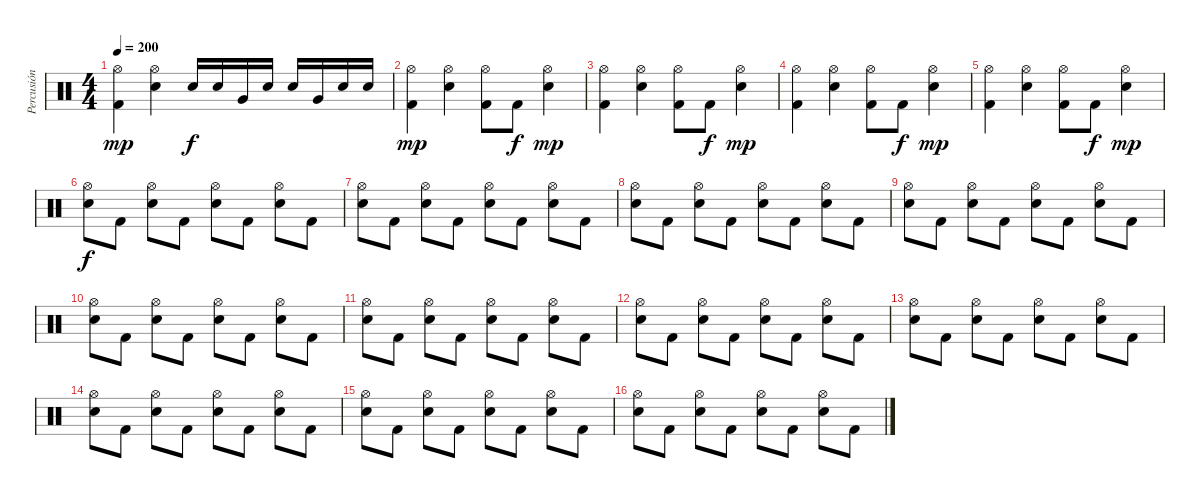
\track ("Percusión" "Percusión") {instrument percussion}
\staff {score}
\articulation defaults
\ts (4 4)
\tempo 200
\clef neutral
\ks c
("Hi-Hat (open)" "Kick (hit) 2").4{dy mp} ("Hi-Hat (open)" "Electric Snare (hit)").4 "Electric Snare (hit)".16{dy f} "Electric Snare (hit)".16 "Very Low Tom (hit)".16 "Electric Snare (hit)".16 "Electric Snare (hit)".16 "Very Low Tom (hit)".16 "Electric Snare (hit)".16 "Electric Snare (hit)".16 |
("Hi-Hat (open)" "Kick (hit) 2").4{dy mp} ("Hi-Hat (open)" "Electric Snare (hit)").4 ("Hi-Hat (open)" "Kick (hit) 2").8 "Kick (hit) 2".8{dy f} ("Hi-Hat (open)" "Electric Snare (hit)").4{dy mp} |
("Hi-Hat (open)" "Kick (hit) 2").4 ("Hi-Hat (open)" "Electric Snare (hit)").4 ("Hi-Hat (open)" "Kick (hit) 2").8 "Kick (hit) 2".8{dy f} ("Hi-Hat (open)" "Electric Snare (hit)").4{dy mp} |
("Hi-Hat (open)" "Kick (hit) 2").4 ("Hi-Hat (open)" "Electric Snare (hit)").4 ("Hi-Hat (open)" "Kick (hit) 2").8 "Kick (hit) 2".8{dy f} ("Hi-Hat (open)" "Electric Snare (hit)").4{dy mp} |
("Hi-Hat (open)" "Kick (hit) 2").4 ("Hi-Hat (open)" "Electric Snare (hit)").4 ("Hi-Hat (open)" "Kick (hit) 2").8 "Kick (hit) 2".8{dy f} ("Hi-Hat (open)" "Electric Snare (hit)").4{dy mp} |
("Hi-Hat (open)" "Electric Snare (hit)").8{dy f} "Kick (hit) 2".8 ("Hi-Hat (open)" "Electric Snare (hit)").8 "Kick (hit) 2".8 ("Hi-Hat (open)" "Electric Snare (hit)").8 "Kick (hit) 2".8 ("Hi-Hat (open)" "Electric Snare (hit)").8 "Kick (hit) 2".8 |
("Hi-Hat (open)" "Electric Snare (hit)").8 "Kick (hit) 2".8 ("Hi-Hat (open)" "Electric Snare (hit)").8 "Kick (hit) 2".8 ("Hi-Hat (open)" "Electric Snare (hit)").8 "Kick (hit) 2".8 ("Hi-Hat (open)" "Electric Snare (hit)").8 "Kick (hit) 2".8 |
("Hi-Hat (open)" "Electric Snare (hit)").8 "Kick (hit) 2".8 ("Hi-Hat (open)" "Electric Snare (hit)").8 "Kick (hit) 2".8 ("Hi-Hat (open)" "Electric Snare (hit)").8 "Kick (hit) 2".8 ("Hi-Hat (open)" "Electric Snare (hit)").8 "Kick (hit) 2".8 |
("Hi-Hat (open)" "Electric Snare (hit)").8 "Kick (hit) 2".8 ("Hi-Hat (open)" "Electric Snare (hit)").8 "Kick (hit) 2".8 ("Hi-Hat (open)" "Electric Snare (hit)").8 "Kick (hit) 2".8 ("Hi-Hat (open)" "Electric Snare (hit)").8 "Kick (hit) 2".8 |
("Hi-Hat (open)" "Electric Snare (hit)").8 "Kick (hit) 2".8 ("Hi-Hat (open)" "Electric Snare (hit)").8 "Kick (hit) 2".8 ("Hi-Hat (open)" "Electric Snare (hit)").8 "Kick (hit) 2".8 ("Hi-Hat (open)" "Electric Snare (hit)").8 "Kick (hit) 2".8 |
("Hi-Hat (open)" "Electric Snare (hit)").8 "Kick (hit) 2".8 ("Hi-Hat (open)" "Electric Snare (hit)").8 "Kick (hit) 2".8 ("Hi-Hat (open)" "Electric Snare (hit)").8 "Kick (hit) 2".8 ("Hi-Hat (open)" "Electric Snare (hit)").8 "Kick (hit) 2".8 |
("Hi-Hat (open)" "Electric Snare (hit)").8 "Kick (hit) 2".8 ("Hi-Hat (open)" "Electric Snare (hit)").8 "Kick (hit) 2".8 ("Hi-Hat (open)" "Electric Snare (hit)").8 "Kick (hit) 2".8 ("Hi-Hat (open)" "Electric Snare (hit)").8 "Kick (hit) 2".8 |
("Hi-Hat (open)" "Electric Snare (hit)").8 "Kick (hit) 2".8 ("Hi-Hat (open)" "Electric Snare (hit)").8 "Kick (hit) 2".8 ("Hi-Hat (open)" "Electric Snare (hit)").8 "Kick (hit) 2".8 ("Hi-Hat (open)" "Electric Snare (hit)").8 "Kick (hit) 2".8 |
("Hi-Hat (open)" "Electric Snare (hit)").8 "Kick (hit) 2".8 ("Hi-Hat (open)" "Electric Snare (hit)").8 "Kick (hit) 2".8 ("Hi-Hat (open)" "Electric Snare (hit)").8 "Kick (hit) 2".8 ("Hi-Hat (open)" "Electric Snare (hit)").8 "Kick (hit) 2".8 |
("Hi-Hat (open)" "Electric Snare (hit)").8 "Kick (hit) 2".8 ("Hi-Hat (open)" "Electric Snare (hit)").8 "Kick (hit) 2".8 ("Hi-Hat (open)" "Electric Snare (hit)").8 "Kick (hit) 2".8 ("Hi-Hat (open)" "Electric Snare (hit)").8 "Kick (hit) 2".8 |
("Hi-Hat (open)" "Electric Snare (hit)").8 "Kick (hit) 2".8 ("Hi-Hat (open)" "Electric Snare (hit)").8 "Kick (hit) 2".8 ("Hi-Hat (open)" "Electric Snare (hit)").8 "Kick (hit) 2".8 ("Hi-Hat (open)" "Electric Snare (hit)").8 "Kick (hit) 2".8
